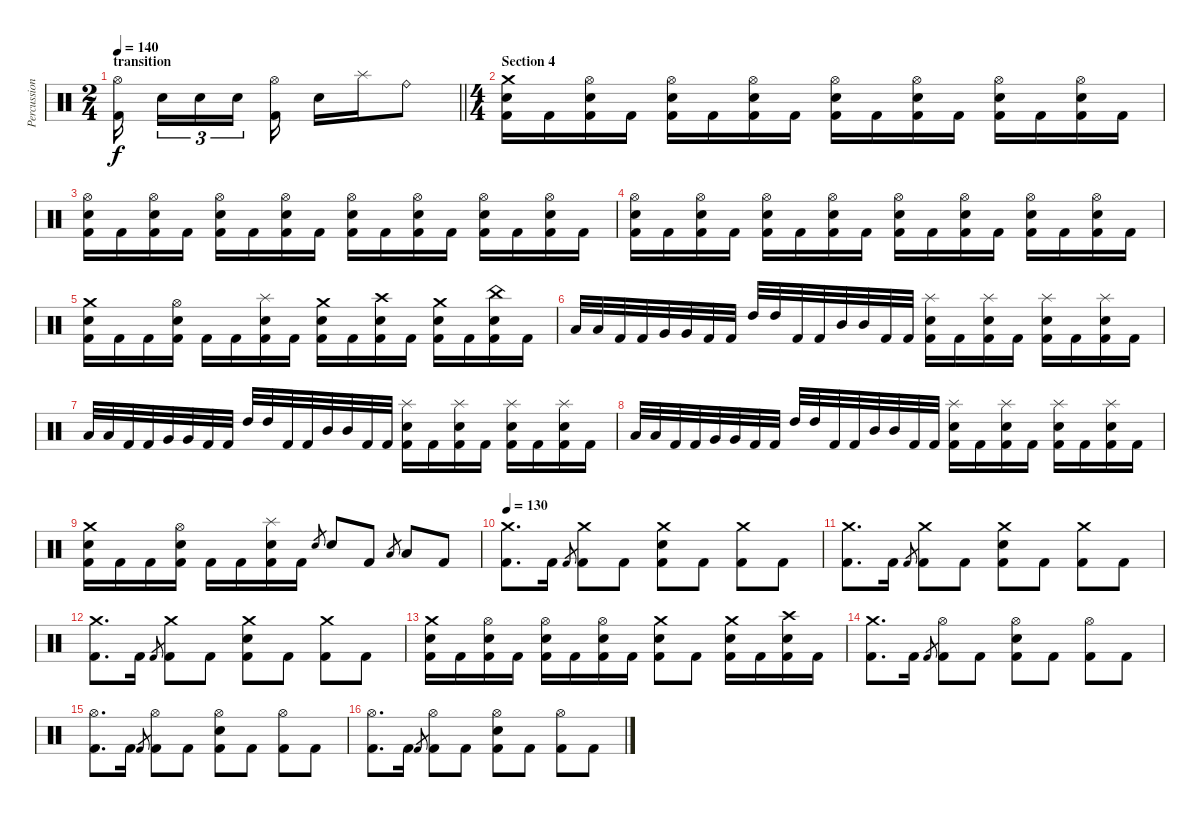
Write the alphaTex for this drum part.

\track ("Percussion" "Percussion") {instrument percussion}
\staff {score}
\articulation defaults
\ts (2 4)
\section ("" "transition")
\tempo 140
\clef neutral
\barLineRight lightlight
\ks c
("Hi-Hat (open)" "Kick (hit) 2").16{dy f beam splitsecondary} "Electric Snare (hit)".16{tu (3 2)} "Electric Snare (hit)".16{tu (3 2)} "Electric Snare (hit)".16{tu (3 2) beam splitsecondary} ("Hi-Hat (open)" "Kick (hit) 2").16 "Electric Snare (hit)".16 "Splash (hit)".16 "Ride (bell)".8 |
\ts (4 4)
\section ("" "Section 4")
("Crash medium (hit)" "Electric Snare (hit)" "Kick (hit) 2").16 "Kick (hit) 2".16 ("Hi-Hat (open)" "Electric Snare (hit)" "Kick (hit) 2").16 "Kick (hit) 2".16 ("Hi-Hat (open)" "Electric Snare (hit)" "Kick (hit) 2").16 "Kick (hit) 2".16 ("Hi-Hat (open)" "Electric Snare (hit)" "Kick (hit) 2").16 "Kick (hit) 2".16 ("Hi-Hat (open)" "Electric Snare (hit)" "Kick (hit) 2").16 "Kick (hit) 2".16 ("Hi-Hat (open)" "Electric Snare (hit)" "Kick (hit) 2").16 "Kick (hit) 2".16 ("Hi-Hat (open)" "Electric Snare (hit)" "Kick (hit) 2").16 "Kick (hit) 2".16 ("Hi-Hat (open)" "Electric Snare (hit)" "Kick (hit) 2").16 "Kick (hit) 2".16 |
("Hi-Hat (open)" "Electric Snare (hit)" "Kick (hit) 2").16 "Kick (hit) 2".16 ("Hi-Hat (open)" "Electric Snare (hit)" "Kick (hit) 2").16 "Kick (hit) 2".16 ("Hi-Hat (open)" "Electric Snare (hit)" "Kick (hit) 2").16 "Kick (hit) 2".16 ("Hi-Hat (open)" "Electric Snare (hit)" "Kick (hit) 2").16 "Kick (hit) 2".16 ("Hi-Hat (open)" "Electric Snare (hit)" "Kick (hit) 2").16 "Kick (hit) 2".16 ("Hi-Hat (open)" "Electric Snare (hit)" "Kick (hit) 2").16 "Kick (hit) 2".16 ("Hi-Hat (open)" "Electric Snare (hit)" "Kick (hit) 2").16 "Kick (hit) 2".16 ("Hi-Hat (open)" "Electric Snare (hit)" "Kick (hit) 2").16 "Kick (hit) 2".16 |
("Hi-Hat (open)" "Electric Snare (hit)" "Kick (hit) 2").16 "Kick (hit) 2".16 ("Hi-Hat (open)" "Electric Snare (hit)" "Kick (hit) 2").16 "Kick (hit) 2".16 ("Hi-Hat (open)" "Electric Snare (hit)" "Kick (hit) 2").16 "Kick (hit) 2".16 ("Hi-Hat (open)" "Electric Snare (hit)" "Kick (hit) 2").16 "Kick (hit) 2".16 ("Hi-Hat (open)" "Electric Snare (hit)" "Kick (hit) 2").16 "Kick (hit) 2".16 ("Hi-Hat (open)" "Electric Snare (hit)" "Kick (hit) 2").16 "Kick (hit) 2".16 ("Hi-Hat (open)" "Electric Snare (hit)" "Kick (hit) 2").16 "Kick (hit) 2".16 ("Hi-Hat (open)" "Electric Snare (hit)" "Kick (hit) 2").16 "Kick (hit) 2".16 |
("Crash medium (hit)" "Electric Snare (hit)" "Kick (hit) 2").16 "Kick (hit) 2".16 "Kick (hit) 2".16 ("Hi-Hat (open)" "Electric Snare (hit)" "Kick (hit) 2").16 "Kick (hit) 2".16 "Kick (hit) 2".16 ("Splash (hit)" "Electric Snare (hit)" "Kick (hit) 2").16 "Kick (hit) 2".16 ("Crash medium (hit)" "Electric Snare (hit)" "Kick (hit) 2").16 "Kick (hit) 2".16 ("Crash high (hit)" "Electric Snare (hit)" "Kick (hit) 2").16 "Kick (hit) 2".16 ("Crash medium (hit)" "Electric Snare (hit)" "Kick (hit) 2").16 "Kick (hit) 2".16 ("China (hit)" "Electric Snare (hit)" "Kick (hit) 2").16 "Kick (hit) 2".16 |
"Low Tom (hit)".32 "Low Tom (hit)".32 "Kick (hit) 2".32 "Kick (hit) 2".32 "Very Low Tom (hit)".32 "Very Low Tom (hit)".32 "Kick (hit) 2".32 "Kick (hit) 2".32 "High Tom (hit)".32 "High Tom (hit)".32 "Kick (hit) 2".32 "Kick (hit) 2".32 "Mid Tom (hit)".32 "Mid Tom (hit)".32 "Kick (hit) 2".32 "Kick (hit) 2".32 ("Splash (hit)" "Electric Snare (hit)" "Kick (hit) 2").16 "Kick (hit) 2".16 ("Splash (hit)" "Electric Snare (hit)" "Kick (hit) 2").16 "Kick (hit) 2".16 ("Splash (hit)" "Electric Snare (hit)" "Kick (hit) 2").16 "Kick (hit) 2".16 ("Splash (hit)" "Electric Snare (hit)" "Kick (hit) 2").16 "Kick (hit) 2".16 |
"Low Tom (hit)".32 "Low Tom (hit)".32 "Kick (hit) 2".32 "Kick (hit) 2".32 "Very Low Tom (hit)".32 "Very Low Tom (hit)".32 "Kick (hit) 2".32 "Kick (hit) 2".32 "High Tom (hit)".32 "High Tom (hit)".32 "Kick (hit) 2".32 "Kick (hit) 2".32 "Mid Tom (hit)".32 "Mid Tom (hit)".32 "Kick (hit) 2".32 "Kick (hit) 2".32 ("Splash (hit)" "Electric Snare (hit)" "Kick (hit) 2").16 "Kick (hit) 2".16 ("Splash (hit)" "Electric Snare (hit)" "Kick (hit) 2").16 "Kick (hit) 2".16 ("Splash (hit)" "Electric Snare (hit)" "Kick (hit) 2").16 "Kick (hit) 2".16 ("Splash (hit)" "Electric Snare (hit)" "Kick (hit) 2").16 "Kick (hit) 2".16 |
"Low Tom (hit)".32 "Low Tom (hit)".32 "Kick (hit) 2".32 "Kick (hit) 2".32 "Very Low Tom (hit)".32 "Very Low Tom (hit)".32 "Kick (hit) 2".32 "Kick (hit) 2".32 "High Tom (hit)".32 "High Tom (hit)".32 "Kick (hit) 2".32 "Kick (hit) 2".32 "Mid Tom (hit)".32 "Mid Tom (hit)".32 "Kick (hit) 2".32 "Kick (hit) 2".32 ("Splash (hit)" "Electric Snare (hit)" "Kick (hit) 2").16 "Kick (hit) 2".16 ("Splash (hit)" "Electric Snare (hit)" "Kick (hit) 2").16 "Kick (hit) 2".16 ("Splash (hit)" "Electric Snare (hit)" "Kick (hit) 2").16 "Kick (hit) 2".16 ("Splash (hit)" "Electric Snare (hit)" "Kick (hit) 2").16 "Kick (hit) 2".16 |
("Crash medium (hit)" "Electric Snare (hit)" "Kick (hit) 2").16 "Kick (hit) 2".16 "Kick (hit) 2".16 ("Hi-Hat (open)" "Electric Snare (hit)" "Kick (hit) 2").16 "Kick (hit) 2".16 "Kick (hit) 2".16 ("Splash (hit)" "Electric Snare (hit)" "Kick (hit) 2").16 "Kick (hit) 2".16 "Electric Snare (hit)".8{gr} "Electric Snare (hit)".8 "Kick (hit) 2".8 "Low Tom (hit)".8{gr} "Low Tom (hit)".8 "Kick (hit) 2".8 |
\tempo 130
("Crash medium (hit)" "Kick (hit) 2").8{d} "Kick (hit) 2".16 "Kick (hit) 2".8{gr} ("Crash medium (hit)" "Kick (hit) 2").8 "Kick (hit) 2".8 ("Crash medium (hit)" "Electric Snare (hit)" "Kick (hit) 2").8 "Kick (hit) 2".8 ("Crash medium (hit)" "Kick (hit) 2").8 "Kick (hit) 2".8 |
("Crash medium (hit)" "Kick (hit) 2").8{d} "Kick (hit) 2".16 "Kick (hit) 2".8{gr} ("Crash medium (hit)" "Kick (hit) 2").8 "Kick (hit) 2".8 ("Crash medium (hit)" "Electric Snare (hit)" "Kick (hit) 2").8 "Kick (hit) 2".8 ("Crash medium (hit)" "Kick (hit) 2").8 "Kick (hit) 2".8 |
("Crash medium (hit)" "Kick (hit) 2").8{d} "Kick (hit) 2".16 "Kick (hit) 2".8{gr} ("Crash medium (hit)" "Kick (hit) 2").8 "Kick (hit) 2".8 ("Crash medium (hit)" "Electric Snare (hit)" "Kick (hit) 2").8 "Kick (hit) 2".8 ("Crash medium (hit)" "Kick (hit) 2").8 "Kick (hit) 2".8 |
("Crash medium (hit)" "Electric Snare (hit)" "Kick (hit) 2").16 "Kick (hit) 2".16 ("Hi-Hat (open)" "Electric Snare (hit)" "Kick (hit) 2").16 "Kick (hit) 2".16 ("Hi-Hat (open)" "Electric Snare (hit)" "Kick (hit) 2").16 "Kick (hit) 2".16 ("Hi-Hat (open)" "Electric Snare (hit)" "Kick (hit) 2").16 "Kick (hit) 2".16 ("Crash medium (hit)" "Electric Snare (hit)" "Kick (hit) 2").8 "Kick (hit) 2".8 ("Crash medium (hit)" "Electric Snare (hit)" "Kick (hit) 2").16 "Kick (hit) 2".16 ("Crash high (hit)" "Electric Snare (hit)" "Kick (hit) 2").16 "Kick (hit) 2".16 |
("Crash medium (hit)" "Kick (hit) 2").8{d} "Kick (hit) 2".16 "Kick (hit) 2".8{gr} ("Hi-Hat (open)" "Kick (hit) 2").8 "Kick (hit) 2".8 ("Hi-Hat (open)" "Electric Snare (hit)" "Kick (hit) 2").8 "Kick (hit) 2".8 ("Hi-Hat (open)" "Kick (hit) 2").8 "Kick (hit) 2".8 |
("Hi-Hat (open)" "Kick (hit) 2").8{d} "Kick (hit) 2".16 "Kick (hit) 2".8{gr} ("Hi-Hat (open)" "Kick (hit) 2").8 "Kick (hit) 2".8 ("Hi-Hat (open)" "Electric Snare (hit)" "Kick (hit) 2").8 "Kick (hit) 2".8 ("Hi-Hat (open)" "Kick (hit) 2").8 "Kick (hit) 2".8 |
("Hi-Hat (open)" "Kick (hit) 2").8{d} "Kick (hit) 2".16 "Kick (hit) 2".8{gr} ("Hi-Hat (open)" "Kick (hit) 2").8 "Kick (hit) 2".8 ("Hi-Hat (open)" "Electric Snare (hit)" "Kick (hit) 2").8 "Kick (hit) 2".8 ("Hi-Hat (open)" "Kick (hit) 2").8 "Kick (hit) 2".8
